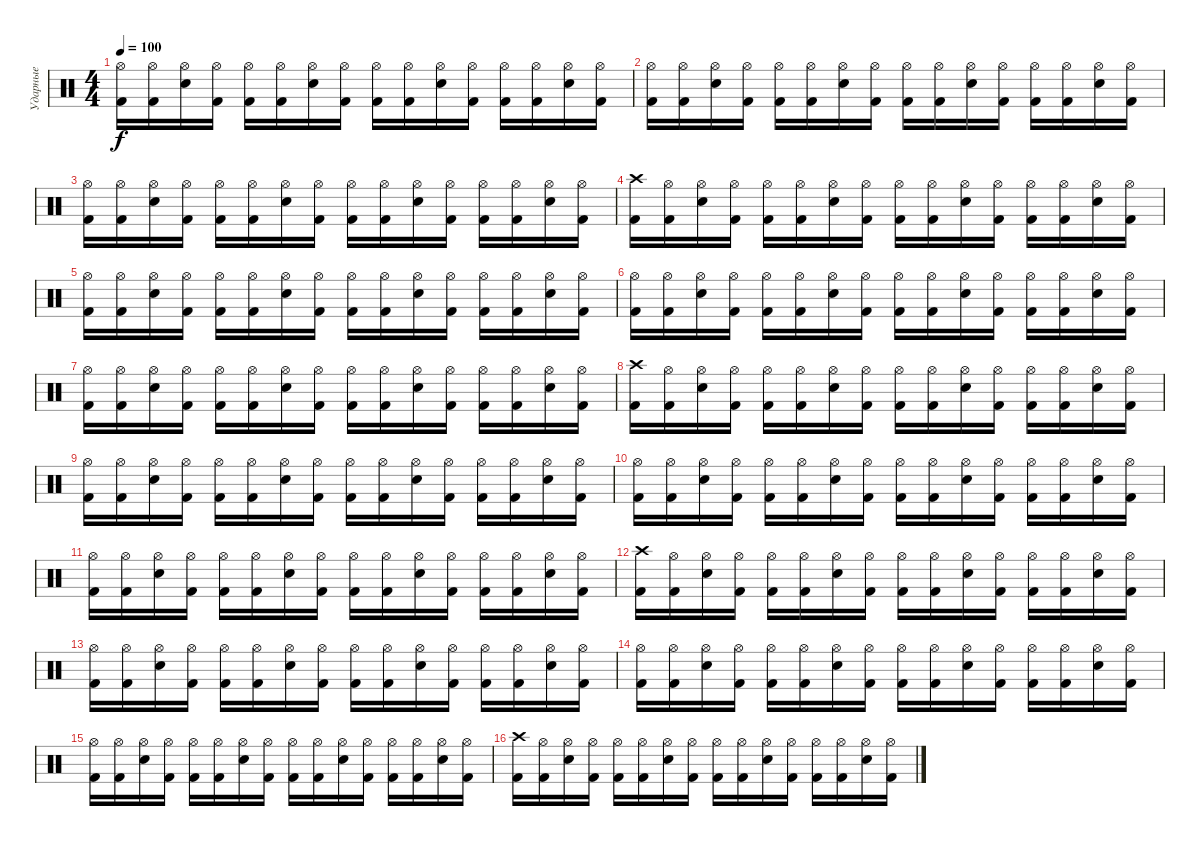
\track ("Ударные" "Ударные") {instrument percussion}
\staff {score}
\articulation defaults
\ts (4 4)
\tempo 100
\clef neutral
\ks c
("Kick (hit) 2" "Hi-Hat (open)").16{dy f} ("Kick (hit) 2" "Hi-Hat (open)").16 ("Electric Snare (hit)" "Hi-Hat (open)").16 ("Kick (hit) 2" "Hi-Hat (open)").16 ("Kick (hit) 2" "Hi-Hat (open)").16 ("Kick (hit) 2" "Hi-Hat (open)").16 ("Electric Snare (hit)" "Hi-Hat (open)").16 ("Kick (hit) 2" "Hi-Hat (open)").16 ("Kick (hit) 2" "Hi-Hat (open)").16 ("Kick (hit) 2" "Hi-Hat (open)").16 ("Electric Snare (hit)" "Hi-Hat (open)").16 ("Kick (hit) 2" "Hi-Hat (open)").16 ("Kick (hit) 2" "Hi-Hat (open)").16 ("Kick (hit) 2" "Hi-Hat (open)").16 ("Electric Snare (hit)" "Hi-Hat (open)").16 ("Kick (hit) 2" "Hi-Hat (open)").16 |
("Kick (hit) 2" "Hi-Hat (open)").16 ("Kick (hit) 2" "Hi-Hat (open)").16 ("Electric Snare (hit)" "Hi-Hat (open)").16 ("Kick (hit) 2" "Hi-Hat (open)").16 ("Kick (hit) 2" "Hi-Hat (open)").16 ("Kick (hit) 2" "Hi-Hat (open)").16 ("Electric Snare (hit)" "Hi-Hat (open)").16 ("Kick (hit) 2" "Hi-Hat (open)").16 ("Kick (hit) 2" "Hi-Hat (open)").16 ("Kick (hit) 2" "Hi-Hat (open)").16 ("Electric Snare (hit)" "Hi-Hat (open)").16 ("Kick (hit) 2" "Hi-Hat (open)").16 ("Kick (hit) 2" "Hi-Hat (open)").16 ("Kick (hit) 2" "Hi-Hat (open)").16 ("Electric Snare (hit)" "Hi-Hat (open)").16 ("Kick (hit) 2" "Hi-Hat (open)").16 |
("Kick (hit) 2" "Hi-Hat (open)").16 ("Kick (hit) 2" "Hi-Hat (open)").16 ("Electric Snare (hit)" "Hi-Hat (open)").16 ("Kick (hit) 2" "Hi-Hat (open)").16 ("Kick (hit) 2" "Hi-Hat (open)").16 ("Kick (hit) 2" "Hi-Hat (open)").16 ("Electric Snare (hit)" "Hi-Hat (open)").16 ("Kick (hit) 2" "Hi-Hat (open)").16 ("Kick (hit) 2" "Hi-Hat (open)").16 ("Kick (hit) 2" "Hi-Hat (open)").16 ("Electric Snare (hit)" "Hi-Hat (open)").16 ("Kick (hit) 2" "Hi-Hat (open)").16 ("Kick (hit) 2" "Hi-Hat (open)").16 ("Kick (hit) 2" "Hi-Hat (open)").16 ("Electric Snare (hit)" "Hi-Hat (open)").16 ("Kick (hit) 2" "Hi-Hat (open)").16 |
("Kick (hit) 2" "Crash high (hit)").16 ("Kick (hit) 2" "Hi-Hat (open)").16 ("Electric Snare (hit)" "Hi-Hat (open)").16 ("Kick (hit) 2" "Hi-Hat (open)").16 ("Kick (hit) 2" "Hi-Hat (open)").16 ("Kick (hit) 2" "Hi-Hat (open)").16 ("Electric Snare (hit)" "Hi-Hat (open)").16 ("Kick (hit) 2" "Hi-Hat (open)").16 ("Kick (hit) 2" "Hi-Hat (open)").16 ("Kick (hit) 2" "Hi-Hat (open)").16 ("Electric Snare (hit)" "Hi-Hat (open)").16 ("Kick (hit) 2" "Hi-Hat (open)").16 ("Kick (hit) 2" "Hi-Hat (open)").16 ("Kick (hit) 2" "Hi-Hat (open)").16 ("Electric Snare (hit)" "Hi-Hat (open)").16 ("Kick (hit) 2" "Hi-Hat (open)").16 |
("Kick (hit) 2" "Hi-Hat (open)").16 ("Kick (hit) 2" "Hi-Hat (open)").16 ("Electric Snare (hit)" "Hi-Hat (open)").16 ("Kick (hit) 2" "Hi-Hat (open)").16 ("Kick (hit) 2" "Hi-Hat (open)").16 ("Kick (hit) 2" "Hi-Hat (open)").16 ("Electric Snare (hit)" "Hi-Hat (open)").16 ("Kick (hit) 2" "Hi-Hat (open)").16 ("Kick (hit) 2" "Hi-Hat (open)").16 ("Kick (hit) 2" "Hi-Hat (open)").16 ("Electric Snare (hit)" "Hi-Hat (open)").16 ("Kick (hit) 2" "Hi-Hat (open)").16 ("Kick (hit) 2" "Hi-Hat (open)").16 ("Kick (hit) 2" "Hi-Hat (open)").16 ("Electric Snare (hit)" "Hi-Hat (open)").16 ("Kick (hit) 2" "Hi-Hat (open)").16 |
("Kick (hit) 2" "Hi-Hat (open)").16 ("Kick (hit) 2" "Hi-Hat (open)").16 ("Electric Snare (hit)" "Hi-Hat (open)").16 ("Kick (hit) 2" "Hi-Hat (open)").16 ("Kick (hit) 2" "Hi-Hat (open)").16 ("Kick (hit) 2" "Hi-Hat (open)").16 ("Electric Snare (hit)" "Hi-Hat (open)").16 ("Kick (hit) 2" "Hi-Hat (open)").16 ("Kick (hit) 2" "Hi-Hat (open)").16 ("Kick (hit) 2" "Hi-Hat (open)").16 ("Electric Snare (hit)" "Hi-Hat (open)").16 ("Kick (hit) 2" "Hi-Hat (open)").16 ("Kick (hit) 2" "Hi-Hat (open)").16 ("Kick (hit) 2" "Hi-Hat (open)").16 ("Electric Snare (hit)" "Hi-Hat (open)").16 ("Kick (hit) 2" "Hi-Hat (open)").16 |
("Kick (hit) 2" "Hi-Hat (open)").16 ("Kick (hit) 2" "Hi-Hat (open)").16 ("Electric Snare (hit)" "Hi-Hat (open)").16 ("Kick (hit) 2" "Hi-Hat (open)").16 ("Kick (hit) 2" "Hi-Hat (open)").16 ("Kick (hit) 2" "Hi-Hat (open)").16 ("Electric Snare (hit)" "Hi-Hat (open)").16 ("Kick (hit) 2" "Hi-Hat (open)").16 ("Kick (hit) 2" "Hi-Hat (open)").16 ("Kick (hit) 2" "Hi-Hat (open)").16 ("Electric Snare (hit)" "Hi-Hat (open)").16 ("Kick (hit) 2" "Hi-Hat (open)").16 ("Kick (hit) 2" "Hi-Hat (open)").16 ("Kick (hit) 2" "Hi-Hat (open)").16 ("Electric Snare (hit)" "Hi-Hat (open)").16 ("Kick (hit) 2" "Hi-Hat (open)").16 |
("Kick (hit) 2" "Crash high (hit)").16 ("Kick (hit) 2" "Hi-Hat (open)").16 ("Electric Snare (hit)" "Hi-Hat (open)").16 ("Kick (hit) 2" "Hi-Hat (open)").16 ("Kick (hit) 2" "Hi-Hat (open)").16 ("Kick (hit) 2" "Hi-Hat (open)").16 ("Electric Snare (hit)" "Hi-Hat (open)").16 ("Kick (hit) 2" "Hi-Hat (open)").16 ("Kick (hit) 2" "Hi-Hat (open)").16 ("Kick (hit) 2" "Hi-Hat (open)").16 ("Electric Snare (hit)" "Hi-Hat (open)").16 ("Kick (hit) 2" "Hi-Hat (open)").16 ("Kick (hit) 2" "Hi-Hat (open)").16 ("Kick (hit) 2" "Hi-Hat (open)").16 ("Electric Snare (hit)" "Hi-Hat (open)").16 ("Kick (hit) 2" "Hi-Hat (open)").16 |
("Kick (hit) 2" "Hi-Hat (open)").16 ("Kick (hit) 2" "Hi-Hat (open)").16 ("Electric Snare (hit)" "Hi-Hat (open)").16 ("Kick (hit) 2" "Hi-Hat (open)").16 ("Kick (hit) 2" "Hi-Hat (open)").16 ("Kick (hit) 2" "Hi-Hat (open)").16 ("Electric Snare (hit)" "Hi-Hat (open)").16 ("Kick (hit) 2" "Hi-Hat (open)").16 ("Kick (hit) 2" "Hi-Hat (open)").16 ("Kick (hit) 2" "Hi-Hat (open)").16 ("Electric Snare (hit)" "Hi-Hat (open)").16 ("Kick (hit) 2" "Hi-Hat (open)").16 ("Kick (hit) 2" "Hi-Hat (open)").16 ("Kick (hit) 2" "Hi-Hat (open)").16 ("Electric Snare (hit)" "Hi-Hat (open)").16 ("Kick (hit) 2" "Hi-Hat (open)").16 |
("Kick (hit) 2" "Hi-Hat (open)").16 ("Kick (hit) 2" "Hi-Hat (open)").16 ("Electric Snare (hit)" "Hi-Hat (open)").16 ("Kick (hit) 2" "Hi-Hat (open)").16 ("Kick (hit) 2" "Hi-Hat (open)").16 ("Kick (hit) 2" "Hi-Hat (open)").16 ("Electric Snare (hit)" "Hi-Hat (open)").16 ("Kick (hit) 2" "Hi-Hat (open)").16 ("Kick (hit) 2" "Hi-Hat (open)").16 ("Kick (hit) 2" "Hi-Hat (open)").16 ("Electric Snare (hit)" "Hi-Hat (open)").16 ("Kick (hit) 2" "Hi-Hat (open)").16 ("Kick (hit) 2" "Hi-Hat (open)").16 ("Kick (hit) 2" "Hi-Hat (open)").16 ("Electric Snare (hit)" "Hi-Hat (open)").16 ("Kick (hit) 2" "Hi-Hat (open)").16 |
("Kick (hit) 2" "Hi-Hat (open)").16 ("Kick (hit) 2" "Hi-Hat (open)").16 ("Electric Snare (hit)" "Hi-Hat (open)").16 ("Kick (hit) 2" "Hi-Hat (open)").16 ("Kick (hit) 2" "Hi-Hat (open)").16 ("Kick (hit) 2" "Hi-Hat (open)").16 ("Electric Snare (hit)" "Hi-Hat (open)").16 ("Kick (hit) 2" "Hi-Hat (open)").16 ("Kick (hit) 2" "Hi-Hat (open)").16 ("Kick (hit) 2" "Hi-Hat (open)").16 ("Electric Snare (hit)" "Hi-Hat (open)").16 ("Kick (hit) 2" "Hi-Hat (open)").16 ("Kick (hit) 2" "Hi-Hat (open)").16 ("Kick (hit) 2" "Hi-Hat (open)").16 ("Electric Snare (hit)" "Hi-Hat (open)").16 ("Kick (hit) 2" "Hi-Hat (open)").16 |
("Kick (hit) 2" "Crash high (hit)").16 ("Kick (hit) 2" "Hi-Hat (open)").16 ("Electric Snare (hit)" "Hi-Hat (open)").16 ("Kick (hit) 2" "Hi-Hat (open)").16 ("Kick (hit) 2" "Hi-Hat (open)").16 ("Kick (hit) 2" "Hi-Hat (open)").16 ("Electric Snare (hit)" "Hi-Hat (open)").16 ("Kick (hit) 2" "Hi-Hat (open)").16 ("Kick (hit) 2" "Hi-Hat (open)").16 ("Kick (hit) 2" "Hi-Hat (open)").16 ("Electric Snare (hit)" "Hi-Hat (open)").16 ("Kick (hit) 2" "Hi-Hat (open)").16 ("Kick (hit) 2" "Hi-Hat (open)").16 ("Kick (hit) 2" "Hi-Hat (open)").16 ("Electric Snare (hit)" "Hi-Hat (open)").16 ("Kick (hit) 2" "Hi-Hat (open)").16 |
("Kick (hit) 2" "Hi-Hat (open)").16 ("Kick (hit) 2" "Hi-Hat (open)").16 ("Electric Snare (hit)" "Hi-Hat (open)").16 ("Kick (hit) 2" "Hi-Hat (open)").16 ("Kick (hit) 2" "Hi-Hat (open)").16 ("Kick (hit) 2" "Hi-Hat (open)").16 ("Electric Snare (hit)" "Hi-Hat (open)").16 ("Kick (hit) 2" "Hi-Hat (open)").16 ("Kick (hit) 2" "Hi-Hat (open)").16 ("Kick (hit) 2" "Hi-Hat (open)").16 ("Electric Snare (hit)" "Hi-Hat (open)").16 ("Kick (hit) 2" "Hi-Hat (open)").16 ("Kick (hit) 2" "Hi-Hat (open)").16 ("Kick (hit) 2" "Hi-Hat (open)").16 ("Electric Snare (hit)" "Hi-Hat (open)").16 ("Kick (hit) 2" "Hi-Hat (open)").16 |
("Kick (hit) 2" "Hi-Hat (open)").16 ("Kick (hit) 2" "Hi-Hat (open)").16 ("Electric Snare (hit)" "Hi-Hat (open)").16 ("Kick (hit) 2" "Hi-Hat (open)").16 ("Kick (hit) 2" "Hi-Hat (open)").16 ("Kick (hit) 2" "Hi-Hat (open)").16 ("Electric Snare (hit)" "Hi-Hat (open)").16 ("Kick (hit) 2" "Hi-Hat (open)").16 ("Kick (hit) 2" "Hi-Hat (open)").16 ("Kick (hit) 2" "Hi-Hat (open)").16 ("Electric Snare (hit)" "Hi-Hat (open)").16 ("Kick (hit) 2" "Hi-Hat (open)").16 ("Kick (hit) 2" "Hi-Hat (open)").16 ("Kick (hit) 2" "Hi-Hat (open)").16 ("Electric Snare (hit)" "Hi-Hat (open)").16 ("Kick (hit) 2" "Hi-Hat (open)").16 |
("Kick (hit) 2" "Hi-Hat (open)").16 ("Kick (hit) 2" "Hi-Hat (open)").16 ("Electric Snare (hit)" "Hi-Hat (open)").16 ("Kick (hit) 2" "Hi-Hat (open)").16 ("Kick (hit) 2" "Hi-Hat (open)").16 ("Kick (hit) 2" "Hi-Hat (open)").16 ("Electric Snare (hit)" "Hi-Hat (open)").16 ("Kick (hit) 2" "Hi-Hat (open)").16 ("Kick (hit) 2" "Hi-Hat (open)").16 ("Kick (hit) 2" "Hi-Hat (open)").16 ("Electric Snare (hit)" "Hi-Hat (open)").16 ("Kick (hit) 2" "Hi-Hat (open)").16 ("Kick (hit) 2" "Hi-Hat (open)").16 ("Kick (hit) 2" "Hi-Hat (open)").16 ("Electric Snare (hit)" "Hi-Hat (open)").16 ("Kick (hit) 2" "Hi-Hat (open)").16 |
("Kick (hit) 2" "Crash high (hit)").16 ("Kick (hit) 2" "Hi-Hat (open)").16 ("Electric Snare (hit)" "Hi-Hat (open)").16 ("Kick (hit) 2" "Hi-Hat (open)").16 ("Kick (hit) 2" "Hi-Hat (open)").16 ("Kick (hit) 2" "Hi-Hat (open)").16 ("Electric Snare (hit)" "Hi-Hat (open)").16 ("Kick (hit) 2" "Hi-Hat (open)").16 ("Kick (hit) 2" "Hi-Hat (open)").16 ("Kick (hit) 2" "Hi-Hat (open)").16 ("Electric Snare (hit)" "Hi-Hat (open)").16 ("Kick (hit) 2" "Hi-Hat (open)").16 ("Kick (hit) 2" "Hi-Hat (open)").16 ("Kick (hit) 2" "Hi-Hat (open)").16 ("Electric Snare (hit)" "Hi-Hat (open)").16 ("Kick (hit) 2" "Hi-Hat (open)").16
